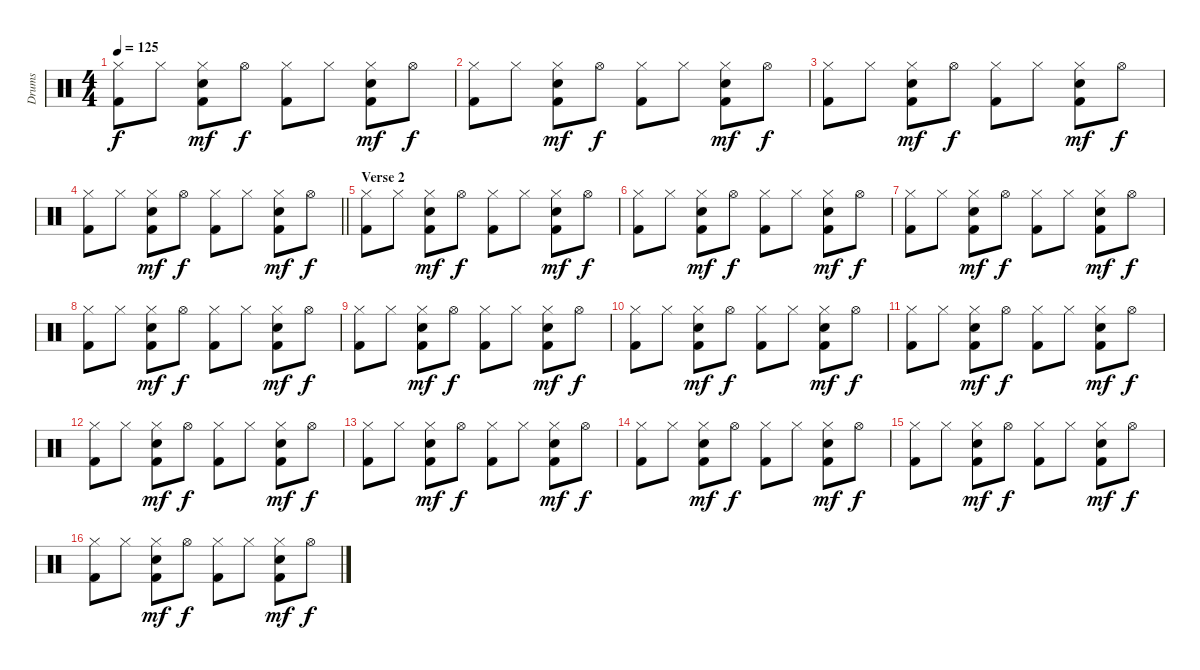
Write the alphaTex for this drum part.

\track ("Drums" "Drums") {instrument percussion}
\staff {score}
\articulation defaults
\ts (4 4)
\tempo 125
\clef neutral
\ks c
("Hi-Hat (closed)" "Kick (hit) 2").8{dy f} "Hi-Hat (closed)".8 ("Hi-Hat (closed)" "Snare (hit) 2" "Kick (hit) 2").8{dy mf} "Hi-Hat (open)".8{dy f} ("Hi-Hat (closed)" "Kick (hit) 2").8 "Hi-Hat (closed)".8 ("Hi-Hat (closed)" "Snare (hit) 2" "Kick (hit) 2").8{dy mf} "Hi-Hat (open)".8{dy f} |
("Hi-Hat (closed)" "Kick (hit) 2").8 "Hi-Hat (closed)".8 ("Hi-Hat (closed)" "Snare (hit) 2" "Kick (hit) 2").8{dy mf} "Hi-Hat (open)".8{dy f} ("Hi-Hat (closed)" "Kick (hit) 2").8 "Hi-Hat (closed)".8 ("Hi-Hat (closed)" "Snare (hit) 2" "Kick (hit) 2").8{dy mf} "Hi-Hat (open)".8{dy f} |
("Hi-Hat (closed)" "Kick (hit) 2").8 "Hi-Hat (closed)".8 ("Hi-Hat (closed)" "Snare (hit) 2" "Kick (hit) 2").8{dy mf} "Hi-Hat (open)".8{dy f} ("Hi-Hat (closed)" "Kick (hit) 2").8 "Hi-Hat (closed)".8 ("Hi-Hat (closed)" "Snare (hit) 2" "Kick (hit) 2").8{dy mf} "Hi-Hat (open)".8{dy f} |
\barLineRight lightlight
("Hi-Hat (closed)" "Kick (hit) 2").8 "Hi-Hat (closed)".8 ("Hi-Hat (closed)" "Snare (hit) 2" "Kick (hit) 2").8{dy mf} "Hi-Hat (open)".8{dy f} ("Hi-Hat (closed)" "Kick (hit) 2").8 "Hi-Hat (closed)".8 ("Hi-Hat (closed)" "Snare (hit) 2" "Kick (hit) 2").8{dy mf} "Hi-Hat (open)".8{dy f} |
\section ("" "Verse 2")
("Hi-Hat (closed)" "Kick (hit) 2").8 "Hi-Hat (closed)".8 ("Hi-Hat (closed)" "Snare (hit) 2" "Kick (hit) 2").8{dy mf} "Hi-Hat (open)".8{dy f} ("Hi-Hat (closed)" "Kick (hit) 2").8 "Hi-Hat (closed)".8 ("Hi-Hat (closed)" "Snare (hit) 2" "Kick (hit) 2").8{dy mf} "Hi-Hat (open)".8{dy f} |
("Hi-Hat (closed)" "Kick (hit) 2").8 "Hi-Hat (closed)".8 ("Hi-Hat (closed)" "Snare (hit) 2" "Kick (hit) 2").8{dy mf} "Hi-Hat (open)".8{dy f} ("Hi-Hat (closed)" "Kick (hit) 2").8 "Hi-Hat (closed)".8 ("Hi-Hat (closed)" "Snare (hit) 2" "Kick (hit) 2").8{dy mf} "Hi-Hat (open)".8{dy f} |
("Hi-Hat (closed)" "Kick (hit) 2").8 "Hi-Hat (closed)".8 ("Hi-Hat (closed)" "Snare (hit) 2" "Kick (hit) 2").8{dy mf} "Hi-Hat (open)".8{dy f} ("Hi-Hat (closed)" "Kick (hit) 2").8 "Hi-Hat (closed)".8 ("Hi-Hat (closed)" "Snare (hit) 2" "Kick (hit) 2").8{dy mf} "Hi-Hat (open)".8{dy f} |
("Hi-Hat (closed)" "Kick (hit) 2").8 "Hi-Hat (closed)".8 ("Hi-Hat (closed)" "Snare (hit) 2" "Kick (hit) 2").8{dy mf} "Hi-Hat (open)".8{dy f} ("Hi-Hat (closed)" "Kick (hit) 2").8 "Hi-Hat (closed)".8 ("Hi-Hat (closed)" "Snare (hit) 2" "Kick (hit) 2").8{dy mf} "Hi-Hat (open)".8{dy f} |
("Hi-Hat (closed)" "Kick (hit) 2").8 "Hi-Hat (closed)".8 ("Hi-Hat (closed)" "Snare (hit) 2" "Kick (hit) 2").8{dy mf} "Hi-Hat (open)".8{dy f} ("Hi-Hat (closed)" "Kick (hit) 2").8 "Hi-Hat (closed)".8 ("Hi-Hat (closed)" "Snare (hit) 2" "Kick (hit) 2").8{dy mf} "Hi-Hat (open)".8{dy f} |
("Hi-Hat (closed)" "Kick (hit) 2").8 "Hi-Hat (closed)".8 ("Hi-Hat (closed)" "Snare (hit) 2" "Kick (hit) 2").8{dy mf} "Hi-Hat (open)".8{dy f} ("Hi-Hat (closed)" "Kick (hit) 2").8 "Hi-Hat (closed)".8 ("Hi-Hat (closed)" "Snare (hit) 2" "Kick (hit) 2").8{dy mf} "Hi-Hat (open)".8{dy f} |
("Hi-Hat (closed)" "Kick (hit) 2").8 "Hi-Hat (closed)".8 ("Hi-Hat (closed)" "Snare (hit) 2" "Kick (hit) 2").8{dy mf} "Hi-Hat (open)".8{dy f} ("Hi-Hat (closed)" "Kick (hit) 2").8 "Hi-Hat (closed)".8 ("Hi-Hat (closed)" "Snare (hit) 2" "Kick (hit) 2").8{dy mf} "Hi-Hat (open)".8{dy f} |
("Hi-Hat (closed)" "Kick (hit) 2").8 "Hi-Hat (closed)".8 ("Hi-Hat (closed)" "Snare (hit) 2" "Kick (hit) 2").8{dy mf} "Hi-Hat (open)".8{dy f} ("Hi-Hat (closed)" "Kick (hit) 2").8 "Hi-Hat (closed)".8 ("Hi-Hat (closed)" "Snare (hit) 2" "Kick (hit) 2").8{dy mf} "Hi-Hat (open)".8{dy f} |
("Hi-Hat (closed)" "Kick (hit) 2").8 "Hi-Hat (closed)".8 ("Hi-Hat (closed)" "Snare (hit) 2" "Kick (hit) 2").8{dy mf} "Hi-Hat (open)".8{dy f} ("Hi-Hat (closed)" "Kick (hit) 2").8 "Hi-Hat (closed)".8 ("Hi-Hat (closed)" "Snare (hit) 2" "Kick (hit) 2").8{dy mf} "Hi-Hat (open)".8{dy f} |
("Hi-Hat (closed)" "Kick (hit) 2").8 "Hi-Hat (closed)".8 ("Hi-Hat (closed)" "Snare (hit) 2" "Kick (hit) 2").8{dy mf} "Hi-Hat (open)".8{dy f} ("Hi-Hat (closed)" "Kick (hit) 2").8 "Hi-Hat (closed)".8 ("Hi-Hat (closed)" "Snare (hit) 2" "Kick (hit) 2").8{dy mf} "Hi-Hat (open)".8{dy f} |
("Hi-Hat (closed)" "Kick (hit) 2").8 "Hi-Hat (closed)".8 ("Hi-Hat (closed)" "Snare (hit) 2" "Kick (hit) 2").8{dy mf} "Hi-Hat (open)".8{dy f} ("Hi-Hat (closed)" "Kick (hit) 2").8 "Hi-Hat (closed)".8 ("Hi-Hat (closed)" "Snare (hit) 2" "Kick (hit) 2").8{dy mf} "Hi-Hat (open)".8{dy f} |
("Hi-Hat (closed)" "Kick (hit) 2").8 "Hi-Hat (closed)".8 ("Hi-Hat (closed)" "Snare (hit) 2" "Kick (hit) 2").8{dy mf} "Hi-Hat (open)".8{dy f} ("Hi-Hat (closed)" "Kick (hit) 2").8 "Hi-Hat (closed)".8 ("Hi-Hat (closed)" "Snare (hit) 2" "Kick (hit) 2").8{dy mf} "Hi-Hat (open)".8{dy f}
